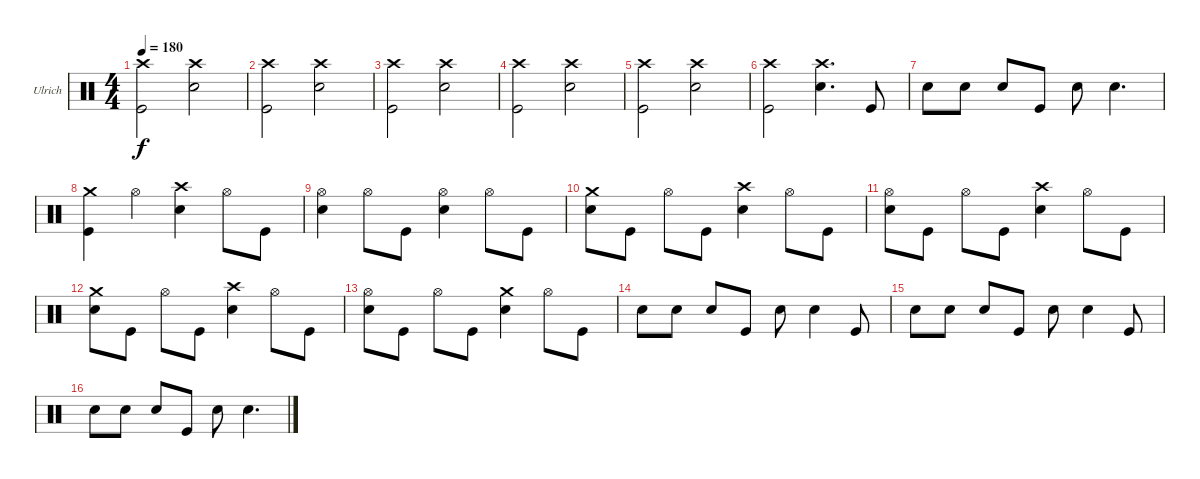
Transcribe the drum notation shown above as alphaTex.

\bracketExtendMode groupsimilarinstruments
\firstSystemTrackNameOrientation horizontal
\otherSystemsTrackNameOrientation horizontal
\track ("Drumkit" "Ulrich") {instrument percussion}
\staff {score}
\articulation defaults
\ts (4 4)
\tempo 180
\clef neutral
\ks c
("Crash high (hit)" "Kick (hit)").2{dy f} ("Crash high (hit)" "Snare (hit) 2").2 |
("Crash high (hit)" "Kick (hit)").2 ("Crash high (hit)" "Snare (hit) 2").2 |
("Crash high (hit)" "Kick (hit)").2 ("Crash high (hit)" "Snare (hit) 2").2 |
("Crash high (hit)" "Kick (hit)").2 ("Crash high (hit)" "Snare (hit) 2").2 |
("Crash high (hit)" "Kick (hit)").2 ("Crash high (hit)" "Snare (hit) 2").2 |
("Crash high (hit)" "Kick (hit)").2 ("Crash high (hit)" "Snare (hit) 2").4{d} "Kick (hit)".8 |
"Snare (hit) 2".8 "Snare (hit) 2".8 "Snare (hit) 2".8 "Kick (hit)".8 "Snare (hit) 2".8 "Snare (hit) 2".4{d} |
("Crash medium (hit)" "Kick (hit)").4 "Hi-Hat (open)".4 ("Crash high (hit)" "Snare (hit) 2").4 "Hi-Hat (open)".8 "Kick (hit)".8 |
("Hi-Hat (open)" "Snare (hit) 2").4 "Hi-Hat (open)".8 "Kick (hit)".8 ("Hi-Hat (open)" "Snare (hit) 2").4 "Hi-Hat (open)".8 "Kick (hit)".8 |
("Crash medium (hit)" "Snare (hit) 2").8 "Kick (hit)".8 "Hi-Hat (open)".8 "Kick (hit)".8 ("Crash high (hit)" "Snare (hit) 2").4 "Hi-Hat (open)".8 "Kick (hit)".8 |
("Hi-Hat (open)" "Snare (hit) 2").8 "Kick (hit)".8 "Hi-Hat (open)".8 "Kick (hit)".8 ("Crash high (hit)" "Snare (hit) 2").4 "Hi-Hat (open)".8 "Kick (hit)".8 |
("Crash medium (hit)" "Snare (hit) 2").8 "Kick (hit)".8 "Hi-Hat (open)".8 "Kick (hit)".8 ("Crash high (hit)" "Snare (hit) 2").4 "Hi-Hat (open)".8 "Kick (hit)".8 |
("Hi-Hat (open)" "Snare (hit) 2").8 "Kick (hit)".8 "Hi-Hat (open)".8 "Kick (hit)".8 ("Crash medium (hit)" "Snare (hit) 2").4 "Hi-Hat (open)".8 "Kick (hit)".8 |
"Snare (hit) 2".8 "Snare (hit) 2".8 "Snare (hit) 2".8 "Kick (hit)".8 "Snare (hit) 2".8 "Snare (hit) 2".4 "Kick (hit)".8 |
"Snare (hit) 2".8 "Snare (hit) 2".8 "Snare (hit) 2".8 "Kick (hit)".8 "Snare (hit) 2".8 "Snare (hit) 2".4 "Kick (hit)".8 |
"Snare (hit) 2".8 "Snare (hit) 2".8 "Snare (hit) 2".8 "Kick (hit)".8 "Snare (hit) 2".8 "Snare (hit) 2".4{d}
